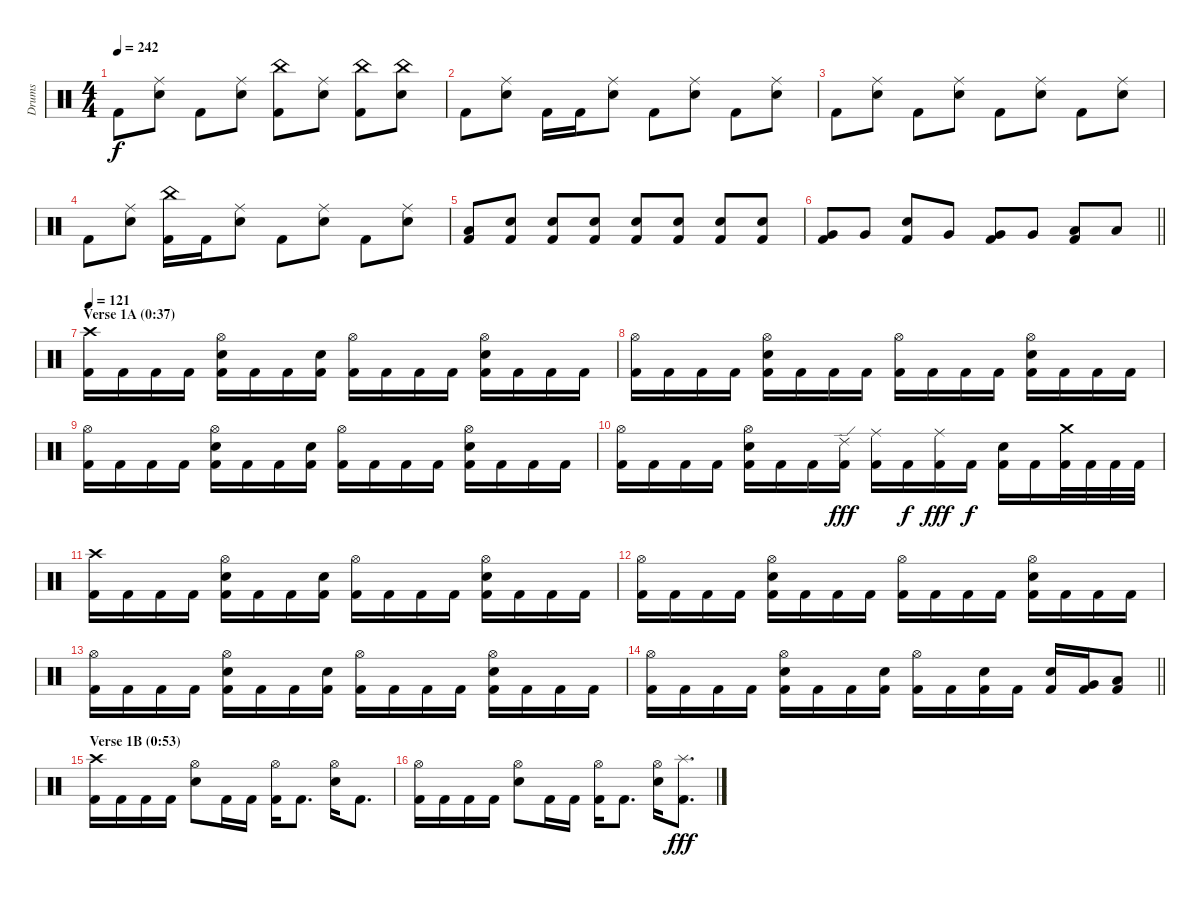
\track ("Drums" "Drums") {instrument percussion}
\staff {score}
\articulation defaults
\ts (4 4)
\tempo 242
\clef neutral
\ks c "Kick (hit) 2".8{dy f}
("Ride (middle)" "Electric Snare (hit)").8 "Kick (hit) 2".8 ("Ride (middle)" "Electric Snare (hit)").8 ("China (hit)" "Kick (hit) 2").8 ("Ride (middle)" "Electric Snare (hit)").8 ("China (hit)" "Kick (hit) 2").8 ("China (hit)" "Electric Snare (hit)").8 |
"Kick (hit) 2".8 ("Ride (middle)" "Electric Snare (hit)").8 "Kick (hit) 2".16 "Kick (hit) 2".16 ("Ride (middle)" "Electric Snare (hit)").8 "Kick (hit) 2".8 ("Ride (middle)" "Electric Snare (hit)").8 "Kick (hit) 2".8 ("Ride (middle)" "Electric Snare (hit)").8 |
"Kick (hit) 2".8 ("Ride (middle)" "Electric Snare (hit)").8 "Kick (hit) 2".8 ("Ride (middle)" "Electric Snare (hit)").8 "Kick (hit) 2".8 ("Ride (middle)" "Electric Snare (hit)").8 "Kick (hit) 2".8 ("Ride (middle)" "Electric Snare (hit)").8 |
"Kick (hit) 2".8 ("Ride (middle)" "Electric Snare (hit)").8 ("China (hit)" "Kick (hit) 2").16 "Kick (hit) 2".16 ("Ride (middle)" "Electric Snare (hit)").8 "Kick (hit) 2".8 ("Ride (middle)" "Electric Snare (hit)").8 "Kick (hit) 2".8 ("Ride (middle)" "Electric Snare (hit)").8 |
("Low Floor Tom (hit)" "Kick (hit) 2").8 ("Electric Snare (hit)" "Kick (hit) 2").8 ("Electric Snare (hit)" "Kick (hit) 2").8 ("Electric Snare (hit)" "Kick (hit) 2").8 ("Electric Snare (hit)" "Kick (hit) 2").8 ("Electric Snare (hit)" "Kick (hit) 2").8 ("Electric Snare (hit)" "Kick (hit) 2").8 ("Electric Snare (hit)" "Kick (hit) 2").8 |
\barLineRight lightlight
("Very Low Tom (hit)" "Kick (hit) 2").8 "Very Low Tom (hit)".8 ("Electric Snare (hit)" "Kick (hit) 2").8 "Very Low Tom (hit)".8 ("Very Low Tom (hit)" "Kick (hit) 2").8 "Very Low Tom (hit)".8 ("Low Floor Tom (hit)" "Kick (hit) 2").8 "Low Floor Tom (hit)".8 |
\section ("" "Verse 1A (0:37)")
\tempo 121
("Crash high (hit)" "Kick (hit) 2").16 "Kick (hit) 2".16 "Kick (hit) 2".16 "Kick (hit) 2".16 ("Hi-Hat (open)" "Electric Snare (hit)" "Kick (hit) 2").16 "Kick (hit) 2".16 "Kick (hit) 2".16 ("Electric Snare (hit)" "Kick (hit) 2").16 ("Hi-Hat (open)" "Kick (hit) 2").16 "Kick (hit) 2".16 "Kick (hit) 2".16 "Kick (hit) 2".16 ("Hi-Hat (open)" "Electric Snare (hit)" "Kick (hit) 2").16 "Kick (hit) 2".16 "Kick (hit) 2".16 "Kick (hit) 2".16 |
("Hi-Hat (open)" "Kick (hit) 2").16 "Kick (hit) 2".16 "Kick (hit) 2".16 "Kick (hit) 2".16 ("Hi-Hat (open)" "Electric Snare (hit)" "Kick (hit) 2").16 "Kick (hit) 2".16 "Kick (hit) 2".16 "Kick (hit) 2".16 ("Hi-Hat (open)" "Kick (hit) 2").16 "Kick (hit) 2".16 "Kick (hit) 2".16 "Kick (hit) 2".16 ("Hi-Hat (open)" "Electric Snare (hit)" "Kick (hit) 2").16 "Kick (hit) 2".16 "Kick (hit) 2".16 "Kick (hit) 2".16 |
("Hi-Hat (open)" "Kick (hit) 2").16 "Kick (hit) 2".16 "Kick (hit) 2".16 "Kick (hit) 2".16 ("Hi-Hat (open)" "Electric Snare (hit)" "Kick (hit) 2").16 "Kick (hit) 2".16 "Kick (hit) 2".16 ("Electric Snare (hit)" "Kick (hit) 2").16 ("Hi-Hat (open)" "Kick (hit) 2").16 "Kick (hit) 2".16 "Kick (hit) 2".16 "Kick (hit) 2".16 ("Hi-Hat (open)" "Electric Snare (hit)" "Kick (hit) 2").16 "Kick (hit) 2".16 "Kick (hit) 2".16 "Kick (hit) 2".16 |
("Hi-Hat (open)" "Kick (hit) 2").16 "Kick (hit) 2".16 "Kick (hit) 2".16 "Kick (hit) 2".16 ("Hi-Hat (open)" "Electric Snare (hit)" "Kick (hit) 2").16 "Kick (hit) 2".16 "Kick (hit) 2".16 ("Ride (edge) 2" "Kick (hit) 2").16{dy fff} ("Ride (middle)" "Kick (hit) 2").16 "Kick (hit) 2".16{dy f} ("Ride (middle)" "Kick (hit) 2").16{dy fff} "Kick (hit) 2".16{dy f} ("Electric Snare (hit)" "Kick (hit) 2").16 "Kick (hit) 2".16 ("Crash medium (hit)" "Kick (hit) 2").32 "Kick (hit) 2".32 "Kick (hit) 2".32 "Kick (hit) 2".32 |
("Crash high (hit)" "Kick (hit) 2").16 "Kick (hit) 2".16 "Kick (hit) 2".16 "Kick (hit) 2".16 ("Hi-Hat (open)" "Electric Snare (hit)" "Kick (hit) 2").16 "Kick (hit) 2".16 "Kick (hit) 2".16 ("Electric Snare (hit)" "Kick (hit) 2").16 ("Hi-Hat (open)" "Kick (hit) 2").16 "Kick (hit) 2".16 "Kick (hit) 2".16 "Kick (hit) 2".16 ("Hi-Hat (open)" "Electric Snare (hit)" "Kick (hit) 2").16 "Kick (hit) 2".16 "Kick (hit) 2".16 "Kick (hit) 2".16 |
("Hi-Hat (open)" "Kick (hit) 2").16 "Kick (hit) 2".16 "Kick (hit) 2".16 "Kick (hit) 2".16 ("Hi-Hat (open)" "Electric Snare (hit)" "Kick (hit) 2").16 "Kick (hit) 2".16 "Kick (hit) 2".16 "Kick (hit) 2".16 ("Hi-Hat (open)" "Kick (hit) 2").16 "Kick (hit) 2".16 "Kick (hit) 2".16 "Kick (hit) 2".16 ("Hi-Hat (open)" "Electric Snare (hit)" "Kick (hit) 2").16 "Kick (hit) 2".16 "Kick (hit) 2".16 "Kick (hit) 2".16 |
("Hi-Hat (open)" "Kick (hit) 2").16 "Kick (hit) 2".16 "Kick (hit) 2".16 "Kick (hit) 2".16 ("Hi-Hat (open)" "Electric Snare (hit)" "Kick (hit) 2").16 "Kick (hit) 2".16 "Kick (hit) 2".16 ("Electric Snare (hit)" "Kick (hit) 2").16 ("Hi-Hat (open)" "Kick (hit) 2").16 "Kick (hit) 2".16 "Kick (hit) 2".16 "Kick (hit) 2".16 ("Hi-Hat (open)" "Electric Snare (hit)" "Kick (hit) 2").16 "Kick (hit) 2".16 "Kick (hit) 2".16 "Kick (hit) 2".16 |
\barLineRight lightlight
("Hi-Hat (open)" "Kick (hit) 2").16 "Kick (hit) 2".16 "Kick (hit) 2".16 "Kick (hit) 2".16 ("Hi-Hat (open)" "Electric Snare (hit)" "Kick (hit) 2").16 "Kick (hit) 2".16 "Kick (hit) 2".16 ("Electric Snare (hit)" "Kick (hit) 2").16 ("Hi-Hat (open)" "Kick (hit) 2").16 "Kick (hit) 2".16 ("Electric Snare (hit)" "Kick (hit) 2").16 "Kick (hit) 2".16 ("Electric Snare (hit)" "Kick (hit) 2").16 ("Very Low Tom (hit)" "Kick (hit) 2").16 ("Low Floor Tom (hit)" "Kick (hit) 2").8 |
\section ("" "Verse 1B (0:53)")
("Crash high (hit)" "Kick (hit) 2").16 "Kick (hit) 2".16 "Kick (hit) 2".16 "Kick (hit) 2".16 ("Hi-Hat (open)" "Electric Snare (hit)").8 "Kick (hit) 2".16 "Kick (hit) 2".16 ("Hi-Hat (open)" "Kick (hit) 2").16 "Kick (hit) 2".8{d} ("Hi-Hat (open)" "Electric Snare (hit)").16 "Kick (hit) 2".8{d} |
("Hi-Hat (open)" "Kick (hit) 2").16 "Kick (hit) 2".16 "Kick (hit) 2".16 "Kick (hit) 2".16 ("Hi-Hat (open)" "Electric Snare (hit)").8 "Kick (hit) 2".16 "Kick (hit) 2".16 ("Hi-Hat (open)" "Kick (hit) 2").16 "Kick (hit) 2".8{d} ("Hi-Hat (open)" "Electric Snare (hit)").16 ("Splash (hit)" "Kick (hit) 2").8{d dy fff}
